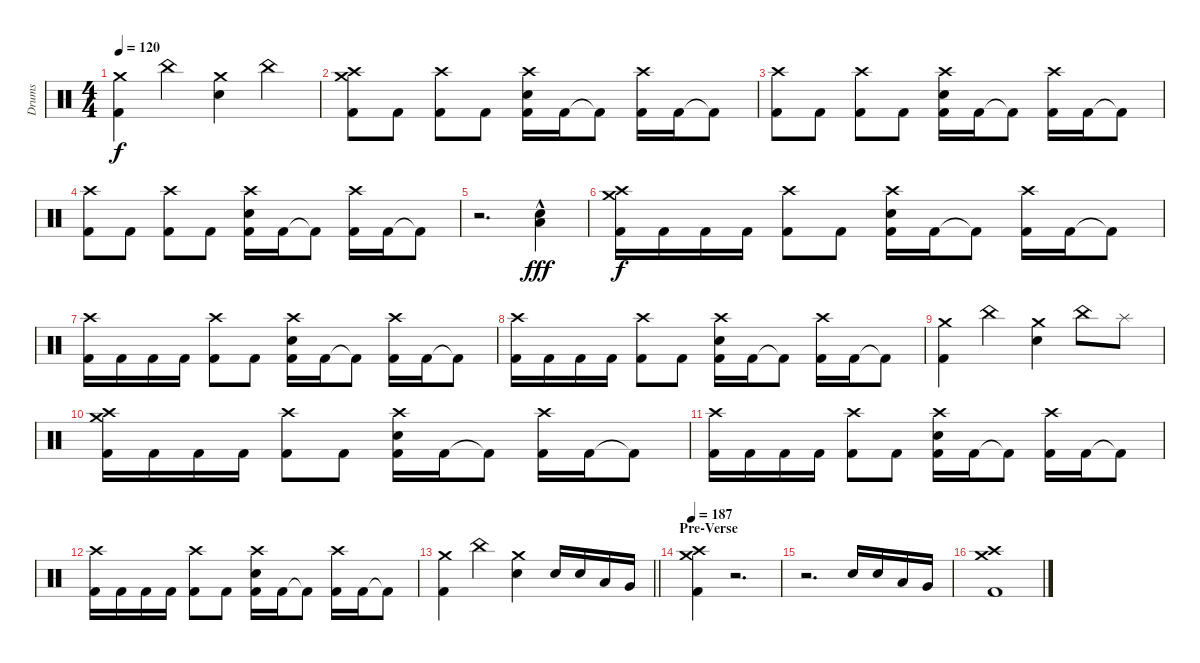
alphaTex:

\track ("Drums" "Drums") {instrument percussion}
\staff {score}
\articulation defaults
\ts (4 4)
\tempo 120
\clef neutral
\ks c
("Crash medium (hit)" "Kick (hit) 2").4{dy f} "China (hit)".4 ("Crash medium (hit)" "Electric Snare (hit)").4 "China (hit)".4 |
("Crash medium (hit)" "Crash high (hit)" "Kick (hit) 2").8 "Kick (hit) 2".8 ("Crash high (hit)" "Kick (hit) 2").8 "Kick (hit) 2".8 ("Crash high (hit)" "Electric Snare (hit)" "Kick (hit) 2").16 "Kick (hit) 2".16 "Kick (hit) 2"{t}.8 ("Crash high (hit)" "Kick (hit) 2").16 "Kick (hit) 2".16 "Kick (hit) 2"{t}.8 |
("Crash high (hit)" "Kick (hit) 2").8 "Kick (hit) 2".8 ("Crash high (hit)" "Kick (hit) 2").8 "Kick (hit) 2".8 ("Crash high (hit)" "Electric Snare (hit)" "Kick (hit) 2").16 "Kick (hit) 2".16 "Kick (hit) 2"{t}.8 ("Crash high (hit)" "Kick (hit) 2").16 "Kick (hit) 2".16 "Kick (hit) 2"{t}.8 |
("Crash high (hit)" "Kick (hit) 2").8 "Kick (hit) 2".8 ("Crash high (hit)" "Kick (hit) 2").8 "Kick (hit) 2".8 ("Crash high (hit)" "Electric Snare (hit)" "Kick (hit) 2").16 "Kick (hit) 2".16 "Kick (hit) 2"{t}.8 ("Crash high (hit)" "Kick (hit) 2").16 "Kick (hit) 2".16 "Kick (hit) 2"{t}.8 |
r.2{d volume 0} ("Electric Snare (hit)"{hac} "Low Floor Tom (hit)"{hac}).4{dy fff volume 14} |
("Crash medium (hit)" "Crash high (hit)" "Kick (hit) 2").16{dy f} "Kick (hit) 2".16 "Kick (hit) 2".16 "Kick (hit) 2".16 ("Crash high (hit)" "Kick (hit) 2").8 "Kick (hit) 2".8 ("Crash high (hit)" "Electric Snare (hit)" "Kick (hit) 2").16 "Kick (hit) 2".16 "Kick (hit) 2"{t}.8 ("Crash high (hit)" "Kick (hit) 2").16 "Kick (hit) 2".16 "Kick (hit) 2"{t}.8 |
("Crash high (hit)" "Kick (hit) 2").16 "Kick (hit) 2".16 "Kick (hit) 2".16 "Kick (hit) 2".16 ("Crash high (hit)" "Kick (hit) 2").8 "Kick (hit) 2".8 ("Crash high (hit)" "Electric Snare (hit)" "Kick (hit) 2").16 "Kick (hit) 2".16 "Kick (hit) 2"{t}.8 ("Crash high (hit)" "Kick (hit) 2").16 "Kick (hit) 2".16 "Kick (hit) 2"{t}.8 |
("Crash high (hit)" "Kick (hit) 2").16 "Kick (hit) 2".16 "Kick (hit) 2".16 "Kick (hit) 2".16 ("Crash high (hit)" "Kick (hit) 2").8 "Kick (hit) 2".8 ("Crash high (hit)" "Electric Snare (hit)" "Kick (hit) 2").16 "Kick (hit) 2".16 "Kick (hit) 2"{t}.8 ("Crash high (hit)" "Kick (hit) 2").16 "Kick (hit) 2".16 "Kick (hit) 2"{t}.8 |
("Crash medium (hit)" "Kick (hit) 2").4 "China (hit)".4 ("Crash medium (hit)" "Electric Snare (hit)").4 "China (hit)".8 "Splash (hit)".8 |
("Crash medium (hit)" "Crash high (hit)" "Kick (hit) 2").16 "Kick (hit) 2".16 "Kick (hit) 2".16 "Kick (hit) 2".16 ("Crash high (hit)" "Kick (hit) 2").8 "Kick (hit) 2".8 ("Crash high (hit)" "Electric Snare (hit)" "Kick (hit) 2").16 "Kick (hit) 2".16 "Kick (hit) 2"{t}.8 ("Crash high (hit)" "Kick (hit) 2").16 "Kick (hit) 2".16 "Kick (hit) 2"{t}.8 |
("Crash high (hit)" "Kick (hit) 2").16 "Kick (hit) 2".16 "Kick (hit) 2".16 "Kick (hit) 2".16 ("Crash high (hit)" "Kick (hit) 2").8 "Kick (hit) 2".8 ("Crash high (hit)" "Electric Snare (hit)" "Kick (hit) 2").16 "Kick (hit) 2".16 "Kick (hit) 2"{t}.8 ("Crash high (hit)" "Kick (hit) 2").16 "Kick (hit) 2".16 "Kick (hit) 2"{t}.8 |
("Crash high (hit)" "Kick (hit) 2").16 "Kick (hit) 2".16 "Kick (hit) 2".16 "Kick (hit) 2".16 ("Crash high (hit)" "Kick (hit) 2").8 "Kick (hit) 2".8 ("Crash high (hit)" "Electric Snare (hit)" "Kick (hit) 2").16 "Kick (hit) 2".16 "Kick (hit) 2"{t}.8 ("Crash high (hit)" "Kick (hit) 2").16 "Kick (hit) 2".16 "Kick (hit) 2"{t}.8 |
\barLineRight lightlight
("Crash medium (hit)" "Kick (hit) 2").4 "China (hit)".4 ("Crash medium (hit)" "Electric Snare (hit)").4 "Electric Snare (hit)".16 "Electric Snare (hit)".16 "Low Tom (hit)".16 "Very Low Tom (hit)".16 |
\section ("" "Pre-Verse")
\tempo 187
("Crash medium (hit)" "Crash high (hit)" "Kick (hit) 2").4 r.2{d volume 0} |
r.2{d} "Electric Snare (hit)".16{volume 14} "Electric Snare (hit)".16 "Low Tom (hit)".16 "Very Low Tom (hit)".16 |
("Crash medium (hit)" "Crash high (hit)" "Kick (hit) 2").1
